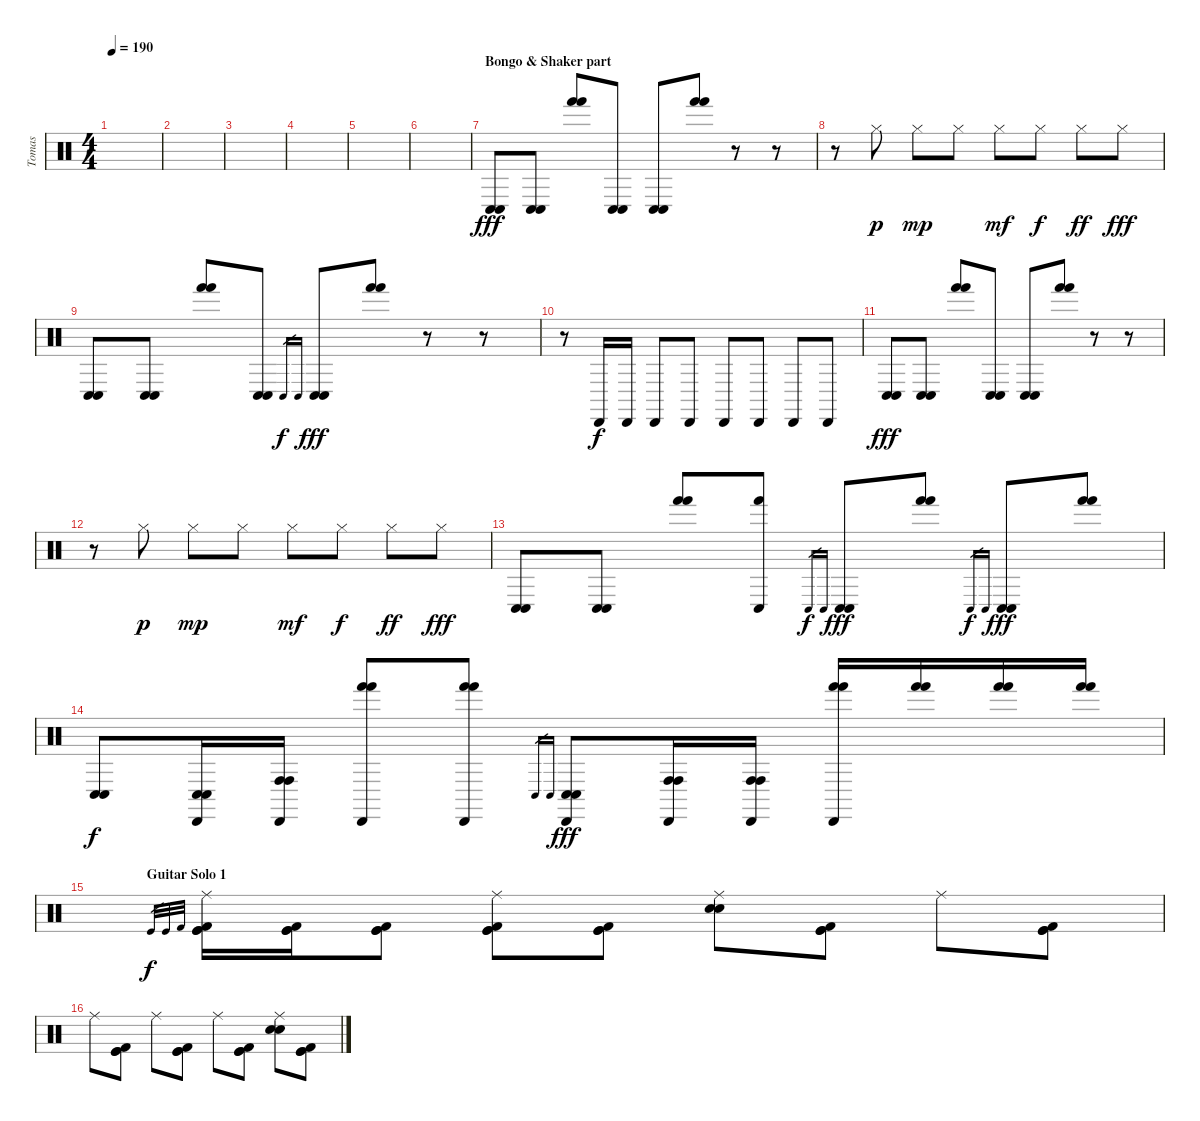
\track ("Tomas" "Tomas") {instrument percussion}
\staff {score}
\articulation defaults
\ts (4 4)
\tempo 190
\clef neutral
\ks c
|
|
|
|
|
|
\section ("" "Bongo & Shaker part")
("Conga low (hit)" "Conga low (hit)").8{dy fff} ("Conga low (hit)" "Conga low (hit)").8 ("Hand (hit)" "Hand (hit)").8 ("Conga low (hit)" "Conga low (hit)").8 ("Conga low (hit)" "Conga low (hit)").8 ("Hand (hit)" "Hand (hit)").8 r.8 r.8 |
r.8 "Hi-Hat (closed)".8{dy p} "Hi-Hat (closed)".8{dy mp} "Hi-Hat (closed)".8 "Hi-Hat (closed)".8{dy mf} "Hi-Hat (closed)".8{dy f} "Hi-Hat (closed)".8{dy ff} "Hi-Hat (closed)".8{dy fff} |
("Conga low (hit)" "Conga low (hit)").8 ("Conga low (hit)" "Conga low (hit)").8 ("Hand (hit)" "Hand (hit)").8 ("Conga low (hit)" "Conga low (hit)").8 "Conga low (hit)".16{gr dy f} "Conga low (hit)".16{gr} ("Conga low (hit)" "Conga low (hit)").8{dy fff} ("Hand (hit)" "Hand (hit)").8 r.8 r.8 |
r.8 "Cabasa (hit)".16{dy f} "Cabasa (hit)".16 "Cabasa (hit)".8 "Cabasa (hit)".8 "Cabasa (hit)".8 "Cabasa (hit)".8 "Cabasa (hit)".8 "Cabasa (hit)".8 |
("Conga low (hit)" "Conga low (hit)").8{dy fff} ("Conga low (hit)" "Conga low (hit)").8 ("Hand (hit)" "Hand (hit)").8 ("Conga low (hit)" "Conga low (hit)").8 ("Conga low (hit)" "Conga low (hit)").8 ("Hand (hit)" "Hand (hit)").8 r.8 r.8 |
r.8 "Hi-Hat (closed)".8{dy p} "Hi-Hat (closed)".8{dy mp} "Hi-Hat (closed)".8 "Hi-Hat (closed)".8{dy mf} "Hi-Hat (closed)".8{dy f} "Hi-Hat (closed)".8{dy ff} "Hi-Hat (closed)".8{dy fff} |
("Conga low (hit)" "Conga low (hit)").8 ("Conga low (hit)" "Conga low (hit)").8 ("Hand (hit)" "Hand (hit)").8 ("Hand (hit)" "Conga low (hit)").8 "Conga low (hit)".16{gr dy f} "Conga low (hit)".16{gr} ("Conga low (hit)" "Conga low (hit)").8{dy fff} ("Hand (hit)" "Hand (hit)").8 "Conga low (hit)".16{gr dy f} "Conga low (hit)".16{gr} ("Conga low (hit)" "Conga low (hit)").8{dy fff} ("Hand (hit)" "Hand (hit)").8 |
("Conga low (hit)" "Conga low (hit)").8{dy f} ("Cabasa (hit)" "Conga low (hit)" "Conga low (hit)").16 ("Cabasa (hit)" "Conga high (hit)" "Conga high (hit)").16 ("Cabasa (hit)" "Hand (hit)" "Hand (hit)").8 ("Cabasa (hit)" "Hand (hit)" "Hand (hit)").8 "Conga low (hit)".16{gr} "Conga low (hit)".16{gr} ("Cabasa (hit)" "Conga low (hit)" "Conga low (hit)").8{dy fff} ("Cabasa (hit)" "Conga high (hit)" "Conga high (hit)").16 ("Cabasa (hit)" "Conga high (hit)" "Conga high (hit)").16 ("Cabasa (hit)" "Hand (hit)" "Hand (hit)").16 ("Hand (hit)" "Hand (hit)").16 ("Hand (hit)" "Hand (hit)").16 ("Hand (hit)" "Hand (hit)").16 |
\section ("" "Guitar Solo 1")
"Kick (hit)".32{gr dy f} "Kick (hit)".32{gr} "Kick (hit) 2".32{gr} ("Ride (middle)" "Kick (hit)" "Kick (hit)" "Kick (hit) 2").16 ("Kick (hit)" "Kick (hit)" "Kick (hit) 2").16 ("Kick (hit)" "Kick (hit)" "Kick (hit) 2").8 ("Ride (middle)" "Kick (hit)" "Kick (hit)" "Kick (hit) 2").8 ("Kick (hit)" "Kick (hit)" "Kick (hit) 2").8 ("Ride (middle)" "Electric Snare (hit)" "Electric Snare (hit)").8 ("Kick (hit)" "Kick (hit)" "Kick (hit) 2").8 "Ride (middle)".8 ("Kick (hit)" "Kick (hit)" "Kick (hit) 2").8 |
"Ride (middle)".8 ("Kick (hit)" "Kick (hit)" "Kick (hit) 2").8 "Ride (middle)".8 ("Kick (hit)" "Kick (hit)" "Kick (hit) 2").8 "Ride (middle)".8 ("Kick (hit)" "Kick (hit)" "Kick (hit) 2").8 ("Ride (middle)" "Electric Snare (hit)" "Electric Snare (hit)").8 ("Kick (hit)" "Kick (hit)" "Kick (hit) 2").8
